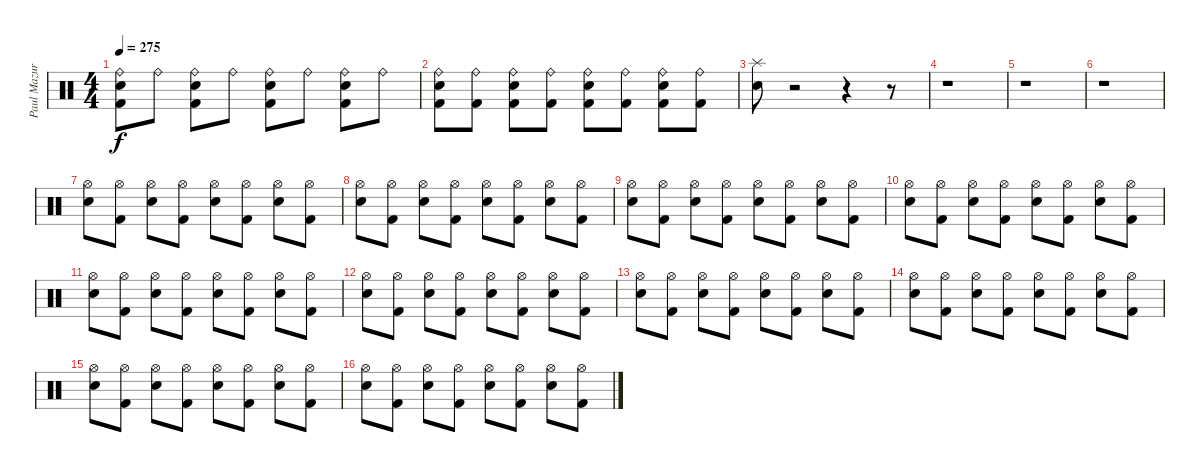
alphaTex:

\track ("Paul Mazurkiewicz" "Paul Mazur") {instrument percussion}
\staff {score}
\articulation defaults
\ts (4 4)
\tempo 275
\clef neutral
\ks c
("Ride (bell)" "Snare (hit) 2" "Kick (hit) 2").8{dy f} "Ride (bell)".8 ("Ride (bell)" "Snare (hit) 2" "Kick (hit) 2").8 "Ride (bell)".8 ("Ride (bell)" "Snare (hit) 2" "Kick (hit) 2").8 "Ride (bell)".8 ("Ride (bell)" "Snare (hit) 2" "Kick (hit) 2").8 "Ride (bell)".8 |
("Ride (bell)" "Snare (hit) 2" "Kick (hit) 2").8 ("Ride (bell)" "Kick (hit) 2").8 ("Ride (bell)" "Snare (hit) 2" "Kick (hit) 2").8 ("Ride (bell)" "Kick (hit) 2").8 ("Ride (bell)" "Snare (hit) 2" "Kick (hit) 2").8 ("Ride (bell)" "Kick (hit) 2").8 ("Ride (bell)" "Snare (hit) 2" "Kick (hit) 2").8 ("Ride (bell)" "Kick (hit) 2").8 |
("Splash (hit)" "Snare (hit) 2").8 r.2 r.4 r.8 |
r.1 |
r.1 |
r.1 |
("Hi-Hat (open)" "Snare (hit) 2").8 ("Hi-Hat (open)" "Kick (hit) 2").8 ("Hi-Hat (open)" "Snare (hit) 2").8 ("Hi-Hat (open)" "Kick (hit) 2").8 ("Hi-Hat (open)" "Snare (hit) 2").8 ("Hi-Hat (open)" "Kick (hit) 2").8 ("Hi-Hat (open)" "Snare (hit) 2").8 ("Hi-Hat (open)" "Kick (hit) 2").8 |
("Hi-Hat (open)" "Snare (hit) 2").8 ("Hi-Hat (open)" "Kick (hit) 2").8 ("Hi-Hat (open)" "Snare (hit) 2").8 ("Hi-Hat (open)" "Kick (hit) 2").8 ("Hi-Hat (open)" "Snare (hit) 2").8 ("Hi-Hat (open)" "Kick (hit) 2").8 ("Hi-Hat (open)" "Snare (hit) 2").8 ("Hi-Hat (open)" "Kick (hit) 2").8 |
("Hi-Hat (open)" "Snare (hit) 2").8 ("Hi-Hat (open)" "Kick (hit) 2").8 ("Hi-Hat (open)" "Snare (hit) 2").8 ("Hi-Hat (open)" "Kick (hit) 2").8 ("Hi-Hat (open)" "Snare (hit) 2").8 ("Hi-Hat (open)" "Kick (hit) 2").8 ("Hi-Hat (open)" "Snare (hit) 2").8 ("Hi-Hat (open)" "Kick (hit) 2").8 |
("Hi-Hat (open)" "Snare (hit) 2").8 ("Hi-Hat (open)" "Kick (hit) 2").8 ("Hi-Hat (open)" "Snare (hit) 2").8 ("Hi-Hat (open)" "Kick (hit) 2").8 ("Hi-Hat (open)" "Snare (hit) 2").8 ("Hi-Hat (open)" "Kick (hit) 2").8 ("Hi-Hat (open)" "Snare (hit) 2").8 ("Hi-Hat (open)" "Kick (hit) 2").8 |
("Hi-Hat (open)" "Snare (hit) 2").8 ("Hi-Hat (open)" "Kick (hit) 2").8 ("Hi-Hat (open)" "Snare (hit) 2").8 ("Hi-Hat (open)" "Kick (hit) 2").8 ("Hi-Hat (open)" "Snare (hit) 2").8 ("Hi-Hat (open)" "Kick (hit) 2").8 ("Hi-Hat (open)" "Snare (hit) 2").8 ("Hi-Hat (open)" "Kick (hit) 2").8 |
("Hi-Hat (open)" "Snare (hit) 2").8 ("Hi-Hat (open)" "Kick (hit) 2").8 ("Hi-Hat (open)" "Snare (hit) 2").8 ("Hi-Hat (open)" "Kick (hit) 2").8 ("Hi-Hat (open)" "Snare (hit) 2").8 ("Hi-Hat (open)" "Kick (hit) 2").8 ("Hi-Hat (open)" "Snare (hit) 2").8 ("Hi-Hat (open)" "Kick (hit) 2").8 |
("Hi-Hat (open)" "Snare (hit) 2").8 ("Hi-Hat (open)" "Kick (hit) 2").8 ("Hi-Hat (open)" "Snare (hit) 2").8 ("Hi-Hat (open)" "Kick (hit) 2").8 ("Hi-Hat (open)" "Snare (hit) 2").8 ("Hi-Hat (open)" "Kick (hit) 2").8 ("Hi-Hat (open)" "Snare (hit) 2").8 ("Hi-Hat (open)" "Kick (hit) 2").8 |
("Hi-Hat (open)" "Snare (hit) 2").8 ("Hi-Hat (open)" "Kick (hit) 2").8 ("Hi-Hat (open)" "Snare (hit) 2").8 ("Hi-Hat (open)" "Kick (hit) 2").8 ("Hi-Hat (open)" "Snare (hit) 2").8 ("Hi-Hat (open)" "Kick (hit) 2").8 ("Hi-Hat (open)" "Snare (hit) 2").8 ("Hi-Hat (open)" "Kick (hit) 2").8 |
("Hi-Hat (open)" "Snare (hit) 2").8 ("Hi-Hat (open)" "Kick (hit) 2").8 ("Hi-Hat (open)" "Snare (hit) 2").8 ("Hi-Hat (open)" "Kick (hit) 2").8 ("Hi-Hat (open)" "Snare (hit) 2").8 ("Hi-Hat (open)" "Kick (hit) 2").8 ("Hi-Hat (open)" "Snare (hit) 2").8 ("Hi-Hat (open)" "Kick (hit) 2").8 |
("Hi-Hat (open)" "Snare (hit) 2").8 ("Hi-Hat (open)" "Kick (hit) 2").8 ("Hi-Hat (open)" "Snare (hit) 2").8 ("Hi-Hat (open)" "Kick (hit) 2").8 ("Hi-Hat (open)" "Snare (hit) 2").8 ("Hi-Hat (open)" "Kick (hit) 2").8 ("Hi-Hat (open)" "Snare (hit) 2").8 ("Hi-Hat (open)" "Kick (hit) 2").8
